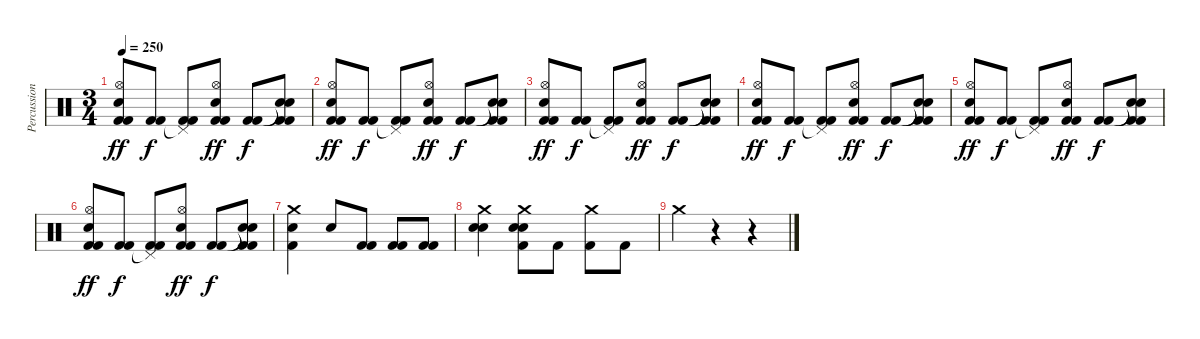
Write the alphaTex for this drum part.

\track ("Percussion" "Percussion") {instrument percussion}
\staff {score}
\articulation defaults
\ts (3 4)
\tempo 250
\clef neutral
\ks c
("Snare (hit) 2" "Hi-Hat (open)" "Kick (hit) 2" "Kick (hit) 2").8{dy ff} ("Kick (hit) 2" "Kick (hit) 2").8{dy f} ("Pedal Hi-Hat (hit)"{t} "Kick (hit) 2" "Kick (hit) 2").8 ("Snare (hit) 2" "Hi-Hat (open)" "Kick (hit) 2" "Kick (hit) 2").8{dy ff} ("Kick (hit) 2" "Kick (hit) 2").8{dy f} ("Snare (hit)"{t} "Snare (hit)"{t} "Kick (hit) 2" "Kick (hit) 2").8 |
("Snare (hit) 2" "Hi-Hat (open)" "Kick (hit) 2" "Kick (hit) 2").8{dy ff} ("Kick (hit) 2" "Kick (hit) 2").8{dy f} ("Pedal Hi-Hat (hit)"{t} "Kick (hit) 2" "Kick (hit) 2").8 ("Snare (hit) 2" "Hi-Hat (open)" "Kick (hit) 2" "Kick (hit) 2").8{dy ff} ("Kick (hit) 2" "Kick (hit) 2").8{dy f} ("Snare (hit)"{t} "Snare (hit)"{t} "Kick (hit) 2" "Kick (hit) 2").8 |
("Snare (hit) 2" "Hi-Hat (open)" "Kick (hit) 2" "Kick (hit) 2").8{dy ff} ("Kick (hit) 2" "Kick (hit) 2").8{dy f} ("Pedal Hi-Hat (hit)"{t} "Kick (hit) 2" "Kick (hit) 2").8 ("Snare (hit) 2" "Hi-Hat (open)" "Kick (hit) 2" "Kick (hit) 2").8{dy ff} ("Kick (hit) 2" "Kick (hit) 2").8{dy f} ("Snare (hit)"{t} "Snare (hit)"{t} "Kick (hit) 2" "Kick (hit) 2").8 |
("Snare (hit) 2" "Hi-Hat (open)" "Kick (hit) 2" "Kick (hit) 2").8{dy ff} ("Kick (hit) 2" "Kick (hit) 2").8{dy f} ("Pedal Hi-Hat (hit)"{t} "Kick (hit) 2" "Kick (hit) 2").8 ("Snare (hit) 2" "Hi-Hat (open)" "Kick (hit) 2" "Kick (hit) 2").8{dy ff} ("Kick (hit) 2" "Kick (hit) 2").8{dy f} ("Snare (hit)"{t} "Snare (hit)"{t} "Kick (hit) 2" "Kick (hit) 2").8 |
("Snare (hit) 2" "Hi-Hat (open)" "Kick (hit) 2" "Kick (hit) 2").8{dy ff} ("Kick (hit) 2" "Kick (hit) 2").8{dy f} ("Pedal Hi-Hat (hit)"{t} "Kick (hit) 2" "Kick (hit) 2").8 ("Snare (hit) 2" "Hi-Hat (open)" "Kick (hit) 2" "Kick (hit) 2").8{dy ff} ("Kick (hit) 2" "Kick (hit) 2").8{dy f} ("Snare (hit)"{t} "Snare (hit)"{t} "Kick (hit) 2" "Kick (hit) 2").8 |
("Snare (hit) 2" "Hi-Hat (open)" "Kick (hit) 2" "Kick (hit) 2").8{dy ff} ("Kick (hit) 2" "Kick (hit) 2").8{dy f} ("Pedal Hi-Hat (hit)"{t} "Kick (hit) 2" "Kick (hit) 2").8 ("Snare (hit) 2" "Hi-Hat (open)" "Kick (hit) 2" "Kick (hit) 2").8{dy ff} ("Kick (hit) 2" "Kick (hit) 2").8{dy f} ("Snare (hit)"{t} "Snare (hit)"{t} "Kick (hit) 2" "Kick (hit) 2").8 |
("Snare (hit) 2" "Crash medium (hit)" "Kick (hit) 2").4 "Snare (hit) 2".8 ("Kick (hit) 2" "Kick (hit) 2").8 ("Kick (hit) 2" "Kick (hit) 2").8 ("Kick (hit) 2" "Kick (hit) 2").8 |
("Snare (hit) 2" "Snare (hit) 2" "Crash medium (hit)").4 ("Snare (hit) 2" "Snare (hit) 2" "Crash medium (hit)" "Kick (hit) 2").8 "Kick (hit) 2".8 ("Crash medium (hit)" "Kick (hit) 2").8 "Kick (hit) 2".8 |
"Crash medium (hit)".4 r.4 r.4
